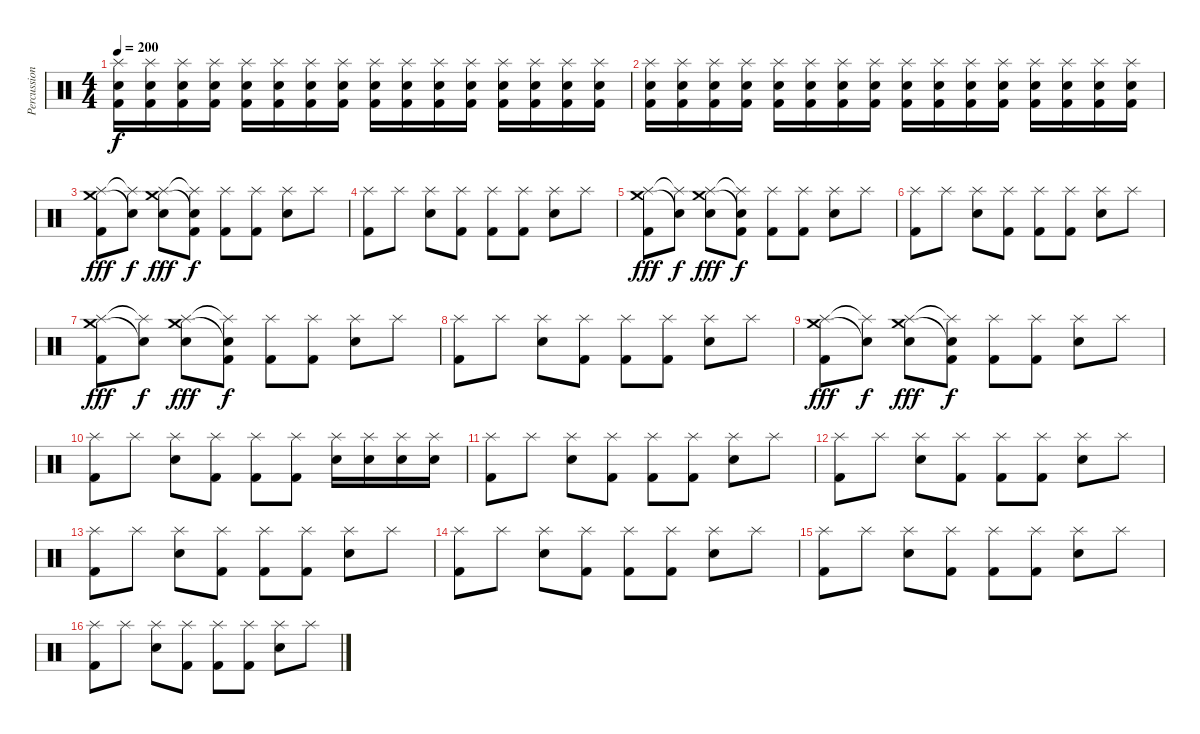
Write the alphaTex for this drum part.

\track ("Percussions" "Percussion") {instrument percussion}
\staff {score}
\articulation defaults
\ts (4 4)
\tempo 200
\clef neutral
\ks c
("Splash (hit)" "Electric Snare (hit)" "Kick (hit) 2").16{dy f} ("Splash (hit)" "Electric Snare (hit)" "Kick (hit) 2").16 ("Splash (hit)" "Electric Snare (hit)" "Kick (hit) 2").16 ("Splash (hit)" "Electric Snare (hit)" "Kick (hit) 2").16 ("Splash (hit)" "Electric Snare (hit)" "Kick (hit) 2").16 ("Splash (hit)" "Electric Snare (hit)" "Kick (hit) 2").16 ("Splash (hit)" "Electric Snare (hit)" "Kick (hit) 2").16 ("Splash (hit)" "Electric Snare (hit)" "Kick (hit) 2").16 ("Splash (hit)" "Electric Snare (hit)" "Kick (hit) 2").16 ("Splash (hit)" "Electric Snare (hit)" "Kick (hit) 2").16 ("Splash (hit)" "Electric Snare (hit)" "Kick (hit) 2").16 ("Splash (hit)" "Electric Snare (hit)" "Kick (hit) 2").16 ("Splash (hit)" "Electric Snare (hit)" "Kick (hit) 2").16 ("Splash (hit)" "Electric Snare (hit)" "Kick (hit) 2").16 ("Splash (hit)" "Electric Snare (hit)" "Kick (hit) 2").16 ("Splash (hit)" "Electric Snare (hit)" "Kick (hit) 2").16 |
("Splash (hit)" "Electric Snare (hit)" "Kick (hit) 2").16 ("Splash (hit)" "Electric Snare (hit)" "Kick (hit) 2").16 ("Splash (hit)" "Electric Snare (hit)" "Kick (hit) 2").16 ("Splash (hit)" "Electric Snare (hit)" "Kick (hit) 2").16 ("Splash (hit)" "Electric Snare (hit)" "Kick (hit) 2").16 ("Splash (hit)" "Electric Snare (hit)" "Kick (hit) 2").16 ("Splash (hit)" "Electric Snare (hit)" "Kick (hit) 2").16 ("Splash (hit)" "Electric Snare (hit)" "Kick (hit) 2").16 ("Splash (hit)" "Electric Snare (hit)" "Kick (hit) 2").16 ("Splash (hit)" "Electric Snare (hit)" "Kick (hit) 2").16 ("Splash (hit)" "Electric Snare (hit)" "Kick (hit) 2").16 ("Splash (hit)" "Electric Snare (hit)" "Kick (hit) 2").16 ("Splash (hit)" "Electric Snare (hit)" "Kick (hit) 2").16 ("Splash (hit)" "Electric Snare (hit)" "Kick (hit) 2").16 ("Splash (hit)" "Electric Snare (hit)" "Kick (hit) 2").16 ("Splash (hit)" "Electric Snare (hit)" "Kick (hit) 2").16 |
("Splash (hit)" "Crash medium (hit)" "Kick (hit) 2").8{dy fff} ("Splash (hit)"{t} "Snare (hit)"{t}).8{dy f} ("Splash (hit)" "Crash medium (hit)" "Electric Snare (hit)").8{dy fff} ("Splash (hit)"{t} "Snare (hit)"{t} "Kick (hit) 2").8{dy f} ("Splash (hit)" "Kick (hit) 2").8 ("Splash (hit)" "Kick (hit) 2").8 ("Splash (hit)" "Electric Snare (hit)").8 "Splash (hit)".8 |
("Splash (hit)" "Kick (hit) 2").8 "Splash (hit)".8 ("Splash (hit)" "Electric Snare (hit)").8 ("Splash (hit)" "Kick (hit) 2").8 ("Splash (hit)" "Kick (hit) 2").8 ("Splash (hit)" "Kick (hit) 2").8 ("Splash (hit)" "Electric Snare (hit)").8 "Splash (hit)".8 |
("Splash (hit)" "Crash medium (hit)" "Kick (hit) 2").8{dy fff} ("Splash (hit)"{t} "Snare (hit)"{t}).8{dy f} ("Splash (hit)" "Crash medium (hit)" "Electric Snare (hit)").8{dy fff} ("Splash (hit)"{t} "Snare (hit)"{t} "Kick (hit) 2").8{dy f} ("Splash (hit)" "Kick (hit) 2").8 ("Splash (hit)" "Kick (hit) 2").8 ("Splash (hit)" "Electric Snare (hit)").8 "Splash (hit)".8 |
("Splash (hit)" "Kick (hit) 2").8 "Splash (hit)".8 ("Splash (hit)" "Electric Snare (hit)").8 ("Splash (hit)" "Kick (hit) 2").8 ("Splash (hit)" "Kick (hit) 2").8 ("Splash (hit)" "Kick (hit) 2").8 ("Splash (hit)" "Electric Snare (hit)").8 "Splash (hit)".8 |
("Splash (hit)" "Crash medium (hit)" "Kick (hit) 2").8{dy fff} ("Splash (hit)"{t} "Snare (hit)"{t}).8{dy f} ("Splash (hit)" "Crash medium (hit)" "Electric Snare (hit)").8{dy fff} ("Splash (hit)"{t} "Snare (hit)"{t} "Kick (hit) 2").8{dy f} ("Splash (hit)" "Kick (hit) 2").8 ("Splash (hit)" "Kick (hit) 2").8 ("Splash (hit)" "Electric Snare (hit)").8 "Splash (hit)".8 |
("Splash (hit)" "Kick (hit) 2").8 "Splash (hit)".8 ("Splash (hit)" "Electric Snare (hit)").8 ("Splash (hit)" "Kick (hit) 2").8 ("Splash (hit)" "Kick (hit) 2").8 ("Splash (hit)" "Kick (hit) 2").8 ("Splash (hit)" "Electric Snare (hit)").8 "Splash (hit)".8 |
("Splash (hit)" "Crash medium (hit)" "Kick (hit) 2").8{dy fff} ("Splash (hit)"{t} "Snare (hit)"{t}).8{dy f} ("Splash (hit)" "Crash medium (hit)" "Electric Snare (hit)").8{dy fff} ("Splash (hit)"{t} "Snare (hit)"{t} "Kick (hit) 2").8{dy f} ("Splash (hit)" "Kick (hit) 2").8 ("Splash (hit)" "Kick (hit) 2").8 ("Splash (hit)" "Electric Snare (hit)").8 "Splash (hit)".8 |
("Splash (hit)" "Kick (hit) 2").8 "Splash (hit)".8 ("Splash (hit)" "Electric Snare (hit)").8 ("Splash (hit)" "Kick (hit) 2").8 ("Splash (hit)" "Kick (hit) 2").8 ("Splash (hit)" "Kick (hit) 2").8 ("Splash (hit)" "Electric Snare (hit)").16 ("Splash (hit)" "Electric Snare (hit)").16 ("Splash (hit)" "Electric Snare (hit)").16 ("Splash (hit)" "Electric Snare (hit)").16 |
("Splash (hit)" "Kick (hit) 2").8 "Splash (hit)".8 ("Splash (hit)" "Electric Snare (hit)").8 ("Splash (hit)" "Kick (hit) 2").8 ("Splash (hit)" "Kick (hit) 2").8 ("Splash (hit)" "Kick (hit) 2").8 ("Splash (hit)" "Electric Snare (hit)").8 "Splash (hit)".8 |
("Splash (hit)" "Kick (hit) 2").8 "Splash (hit)".8 ("Splash (hit)" "Electric Snare (hit)").8 ("Splash (hit)" "Kick (hit) 2").8 ("Splash (hit)" "Kick (hit) 2").8 ("Splash (hit)" "Kick (hit) 2").8 ("Splash (hit)" "Electric Snare (hit)").8 "Splash (hit)".8 |
("Splash (hit)" "Kick (hit) 2").8 "Splash (hit)".8 ("Splash (hit)" "Electric Snare (hit)").8 ("Splash (hit)" "Kick (hit) 2").8 ("Splash (hit)" "Kick (hit) 2").8 ("Splash (hit)" "Kick (hit) 2").8 ("Splash (hit)" "Electric Snare (hit)").8 "Splash (hit)".8 |
("Splash (hit)" "Kick (hit) 2").8 "Splash (hit)".8 ("Splash (hit)" "Electric Snare (hit)").8 ("Splash (hit)" "Kick (hit) 2").8 ("Splash (hit)" "Kick (hit) 2").8 ("Splash (hit)" "Kick (hit) 2").8 ("Splash (hit)" "Electric Snare (hit)").8 "Splash (hit)".8 |
("Splash (hit)" "Kick (hit) 2").8 "Splash (hit)".8 ("Splash (hit)" "Electric Snare (hit)").8 ("Splash (hit)" "Kick (hit) 2").8 ("Splash (hit)" "Kick (hit) 2").8 ("Splash (hit)" "Kick (hit) 2").8 ("Splash (hit)" "Electric Snare (hit)").8 "Splash (hit)".8 |
("Splash (hit)" "Kick (hit) 2").8 "Splash (hit)".8 ("Splash (hit)" "Electric Snare (hit)").8 ("Splash (hit)" "Kick (hit) 2").8 ("Splash (hit)" "Kick (hit) 2").8 ("Splash (hit)" "Kick (hit) 2").8 ("Splash (hit)" "Electric Snare (hit)").8 "Splash (hit)".8
